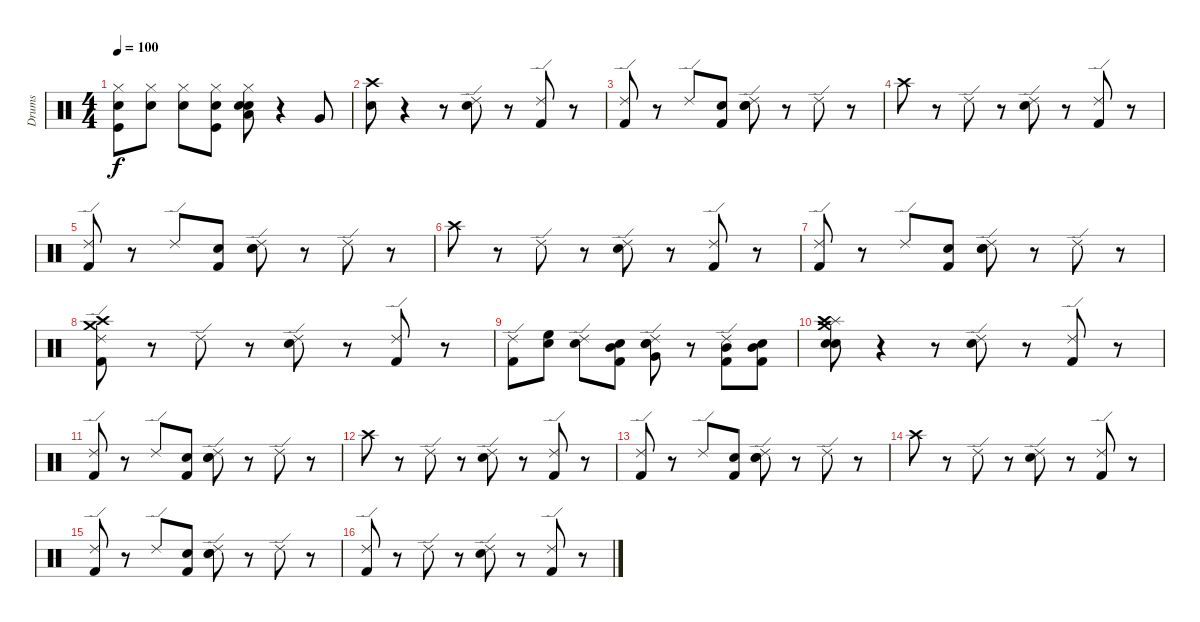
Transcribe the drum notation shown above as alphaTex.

\track ("Drums" "Drums") {instrument percussion}
\staff {score}
\articulation defaults
\ts (4 4)
\tempo 100
\clef neutral
\ks c
("Snare (hit)" "Kick (hit)" "Hi-Hat (closed)").8{dy f} ("Snare (hit)" "Hi-Hat (closed)").8 ("Snare (hit)" "Hi-Hat (closed)").8 ("Snare (hit)" "Kick (hit)" "Hi-Hat (closed)").8 ("Snare (hit)" "Low Tom (hit)" "Snare (hit) 2" "Hi-Hat (closed)").8 r.4 "Very Low Tom (hit)".8 |
("Snare (hit)" "Crash high (hit)").8 r.4 r.8 ("Snare (hit) 2" "Ride (edge) 2").8 r.8 ("Kick (hit) 2" "Ride (edge) 2").8 r.8 |
("Kick (hit) 2" "Ride (edge) 2").8 r.8 "Ride (edge) 2".8 ("Snare (hit)" "Kick (hit) 2").8 ("Snare (hit)" "Snare (hit) 2" "Ride (edge) 2").8 r.8 "Ride (edge) 2".8 r.8 |
"Crash high (hit)".8 r.8 "Ride (edge) 2".8 r.8 ("Snare (hit) 2" "Ride (edge) 2").8 r.8 ("Kick (hit) 2" "Ride (edge) 2").8 r.8 |
("Kick (hit) 2" "Ride (edge) 2").8 r.8 "Ride (edge) 2".8 ("Snare (hit)" "Kick (hit) 2").8 ("Snare (hit)" "Snare (hit) 2" "Ride (edge) 2").8 r.8 "Ride (edge) 2".8 r.8 |
"Crash high (hit)".8 r.8 "Ride (edge) 2".8 r.8 ("Snare (hit) 2" "Ride (edge) 2").8 r.8 ("Kick (hit) 2" "Ride (edge) 2").8 r.8 |
("Ride (edge) 2" "Kick (hit) 2").8 r.8 "Ride (edge) 2".8 ("Snare (hit)" "Kick (hit) 2").8 ("Snare (hit)" "Ride (edge) 2" "Snare (hit) 2").8 r.8 "Ride (edge) 2".8 r.8 |
("Crash high (hit)" "Crash medium (hit)" "Kick (hit) 2" "Ride (edge) 2").8 r.8 "Ride (edge) 2".8 r.8 ("Snare (hit) 2" "Ride (edge) 2").8 r.8 ("Kick (hit) 2" "Ride (edge) 2").8 r.8 |
("Kick (hit) 2" "Ride (edge) 2").8 ("Snare (hit)" "High Floor Tom (hit)").8 ("Snare (hit)" "Ride (edge) 2").8 ("Snare (hit)" "Mid Tom (hit)" "Kick (hit) 2").8 ("Snare (hit)" "Very Low Tom (hit)" "Snare (hit) 2" "Ride (edge) 2").8 r.8 ("Mid Tom (hit)" "Kick (hit) 2" "Ride (edge) 2").8 ("Snare (hit)" "Mid Tom (hit)" "Kick (hit) 2").8 |
("Snare (hit)" "Snare (hit) 2" "Crash medium (hit)" "Splash (hit)" "Crash high (hit)").8 r.4 r.8 ("Snare (hit) 2" "Ride (edge) 2").8 r.8 ("Kick (hit) 2" "Ride (edge) 2").8 r.8 |
("Kick (hit) 2" "Ride (edge) 2").8 r.8 "Ride (edge) 2".8 ("Snare (hit)" "Kick (hit) 2").8 ("Snare (hit)" "Snare (hit) 2" "Ride (edge) 2").8 r.8 "Ride (edge) 2".8 r.8 |
"Crash high (hit)".8 r.8 "Ride (edge) 2".8 r.8 ("Snare (hit) 2" "Ride (edge) 2").8 r.8 ("Kick (hit) 2" "Ride (edge) 2").8 r.8 |
("Kick (hit) 2" "Ride (edge) 2").8 r.8 "Ride (edge) 2".8 ("Snare (hit)" "Kick (hit) 2").8 ("Snare (hit)" "Snare (hit) 2" "Ride (edge) 2").8 r.8 "Ride (edge) 2".8 r.8 |
"Crash high (hit)".8 r.8 "Ride (edge) 2".8 r.8 ("Snare (hit) 2" "Ride (edge) 2").8 r.8 ("Kick (hit) 2" "Ride (edge) 2").8 r.8 |
("Ride (edge) 2" "Kick (hit) 2").8 r.8 "Ride (edge) 2".8 ("Snare (hit)" "Kick (hit) 2").8 ("Snare (hit)" "Ride (edge) 2" "Snare (hit) 2").8 r.8 "Ride (edge) 2".8 r.8 |
("Kick (hit) 2" "Ride (edge) 2").8 r.8 "Ride (edge) 2".8 r.8 ("Snare (hit) 2" "Ride (edge) 2").8 r.8 ("Kick (hit) 2" "Ride (edge) 2").8 r.8
